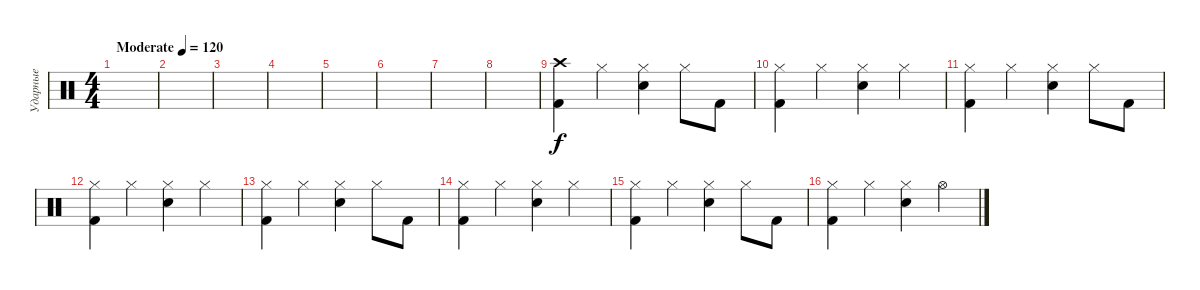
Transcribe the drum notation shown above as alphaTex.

\track ("Ударные" "Ударные") {instrument percussion}
\staff {score}
\articulation defaults
\ts (4 4)
\tempo (120 "Moderate")
\clef neutral
\ks c
|
|
|
|
|
|
|
|
("Crash high (hit)" "Kick (hit) 2").4 "Hi-Hat (closed)".4 ("Hi-Hat (closed)" "Snare (hit) 2").4 "Hi-Hat (closed)".8 "Kick (hit) 2".8 |
("Hi-Hat (closed)" "Kick (hit) 2").4 "Hi-Hat (closed)".4 ("Hi-Hat (closed)" "Snare (hit) 2").4 "Hi-Hat (closed)".4 |
("Hi-Hat (closed)" "Kick (hit) 2").4 "Hi-Hat (closed)".4 ("Hi-Hat (closed)" "Snare (hit) 2").4 "Hi-Hat (closed)".8 "Kick (hit) 2".8 |
("Hi-Hat (closed)" "Kick (hit) 2").4 "Hi-Hat (closed)".4 ("Hi-Hat (closed)" "Snare (hit) 2").4 "Hi-Hat (closed)".4 |
("Hi-Hat (closed)" "Kick (hit) 2").4 "Hi-Hat (closed)".4 ("Hi-Hat (closed)" "Snare (hit) 2").4 "Hi-Hat (closed)".8 "Kick (hit) 2".8 |
("Hi-Hat (closed)" "Kick (hit) 2").4 "Hi-Hat (closed)".4 ("Hi-Hat (closed)" "Snare (hit) 2").4 "Hi-Hat (closed)".4 |
("Hi-Hat (closed)" "Kick (hit) 2").4 "Hi-Hat (closed)".4 ("Hi-Hat (closed)" "Snare (hit) 2").4 "Hi-Hat (closed)".8 "Kick (hit) 2".8 |
("Hi-Hat (closed)" "Kick (hit) 2").4 "Hi-Hat (closed)".4 ("Hi-Hat (closed)" "Snare (hit) 2").4 "Hi-Hat (open)".4
